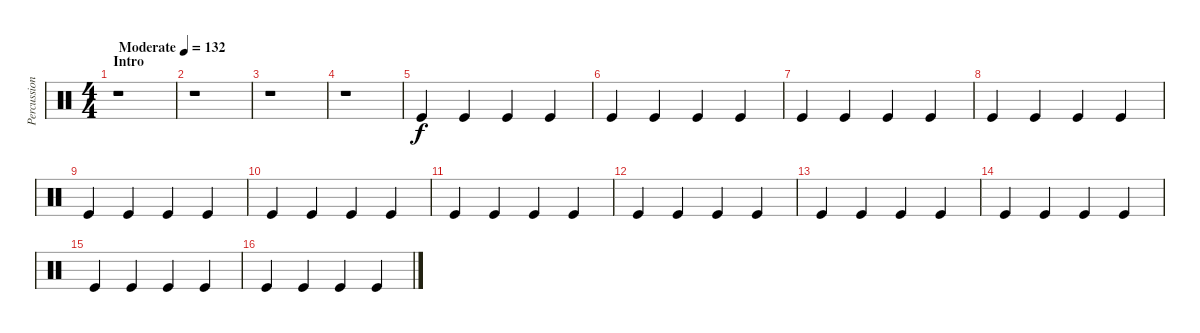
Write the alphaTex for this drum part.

\track ("Percussion" "Percussion") {instrument percussion}
\staff {score}
\articulation defaults
\ts (4 4)
\section ("" "Intro")
\tempo (132 "Moderate")
\clef neutral
\ks c
r.1{dy f} |
r.1 |
r.1 |
r.1 |
"Kick (hit)".4 "Kick (hit)".4 "Kick (hit)".4 "Kick (hit)".4 |
"Kick (hit)".4 "Kick (hit)".4 "Kick (hit)".4 "Kick (hit)".4 |
"Kick (hit)".4 "Kick (hit)".4 "Kick (hit)".4 "Kick (hit)".4 |
"Kick (hit)".4 "Kick (hit)".4 "Kick (hit)".4 "Kick (hit)".4 |
"Kick (hit)".4 "Kick (hit)".4 "Kick (hit)".4 "Kick (hit)".4 |
"Kick (hit)".4 "Kick (hit)".4 "Kick (hit)".4 "Kick (hit)".4 |
"Kick (hit)".4 "Kick (hit)".4 "Kick (hit)".4 "Kick (hit)".4 |
"Kick (hit)".4 "Kick (hit)".4 "Kick (hit)".4 "Kick (hit)".4 |
"Kick (hit)".4 "Kick (hit)".4 "Kick (hit)".4 "Kick (hit)".4 |
"Kick (hit)".4 "Kick (hit)".4 "Kick (hit)".4 "Kick (hit)".4 |
"Kick (hit)".4 "Kick (hit)".4 "Kick (hit)".4 "Kick (hit)".4 |
"Kick (hit)".4 "Kick (hit)".4 "Kick (hit)".4 "Kick (hit)".4
